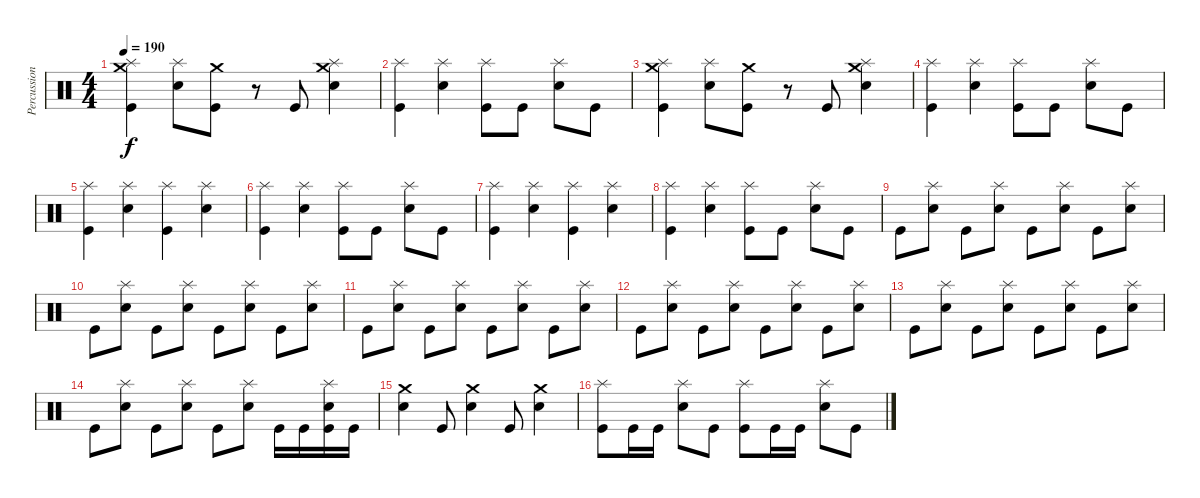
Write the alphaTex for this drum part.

\track ("Percussion" "Percussion") {instrument percussion}
\staff {score}
\articulation defaults
\ts (4 4)
\tempo 190
\clef neutral
\ks c
("Crash medium (hit)" "Splash (hit)" "Kick (hit)").4{dy f} ("Splash (hit)" "Electric Snare (hit)").8 ("Crash medium (hit)" "Kick (hit)").8 r.8 "Kick (hit)".8 ("Crash medium (hit)" "Splash (hit)" "Electric Snare (hit)").4 |
("Splash (hit)" "Kick (hit)").4 ("Splash (hit)" "Electric Snare (hit)").4 ("Splash (hit)" "Kick (hit)").8 "Kick (hit)".8 ("Splash (hit)" "Electric Snare (hit)").8 "Kick (hit)".8 |
("Crash medium (hit)" "Splash (hit)" "Kick (hit)").4 ("Splash (hit)" "Electric Snare (hit)").8 ("Crash medium (hit)" "Kick (hit)").8 r.8 "Kick (hit)".8 ("Crash medium (hit)" "Splash (hit)" "Electric Snare (hit)").4 |
("Splash (hit)" "Kick (hit)").4 ("Splash (hit)" "Electric Snare (hit)").4 ("Splash (hit)" "Kick (hit)").8 "Kick (hit)".8 ("Splash (hit)" "Electric Snare (hit)").8 "Kick (hit)".8 |
("Splash (hit)" "Kick (hit)").4 ("Splash (hit)" "Electric Snare (hit)").4 ("Splash (hit)" "Kick (hit)").4 ("Splash (hit)" "Electric Snare (hit)").4 |
("Splash (hit)" "Kick (hit)").4 ("Splash (hit)" "Electric Snare (hit)").4 ("Splash (hit)" "Kick (hit)").8 "Kick (hit)".8 ("Splash (hit)" "Electric Snare (hit)").8 "Kick (hit)".8 |
("Splash (hit)" "Kick (hit)").4 ("Splash (hit)" "Electric Snare (hit)").4 ("Splash (hit)" "Kick (hit)").4 ("Splash (hit)" "Electric Snare (hit)").4 |
("Splash (hit)" "Kick (hit)").4 ("Splash (hit)" "Electric Snare (hit)").4 ("Splash (hit)" "Kick (hit)").8 "Kick (hit)".8 ("Splash (hit)" "Electric Snare (hit)").8 "Kick (hit)".8 |
"Kick (hit)".8 ("Splash (hit)" "Electric Snare (hit)").8 "Kick (hit)".8 ("Splash (hit)" "Electric Snare (hit)").8 "Kick (hit)".8 ("Splash (hit)" "Electric Snare (hit)").8 "Kick (hit)".8 ("Splash (hit)" "Electric Snare (hit)").8 |
"Kick (hit)".8 ("Splash (hit)" "Electric Snare (hit)").8 "Kick (hit)".8 ("Splash (hit)" "Electric Snare (hit)").8 "Kick (hit)".8 ("Splash (hit)" "Electric Snare (hit)").8 "Kick (hit)".8 ("Splash (hit)" "Electric Snare (hit)").8 |
"Kick (hit)".8 ("Splash (hit)" "Electric Snare (hit)").8 "Kick (hit)".8 ("Splash (hit)" "Electric Snare (hit)").8 "Kick (hit)".8 ("Splash (hit)" "Electric Snare (hit)").8 "Kick (hit)".8 ("Splash (hit)" "Electric Snare (hit)").8 |
"Kick (hit)".8 ("Splash (hit)" "Electric Snare (hit)").8 "Kick (hit)".8 ("Splash (hit)" "Electric Snare (hit)").8 "Kick (hit)".8 ("Splash (hit)" "Electric Snare (hit)").8 "Kick (hit)".8 ("Splash (hit)" "Electric Snare (hit)").8 |
"Kick (hit)".8 ("Splash (hit)" "Electric Snare (hit)").8 "Kick (hit)".8 ("Splash (hit)" "Electric Snare (hit)").8 "Kick (hit)".8 ("Splash (hit)" "Electric Snare (hit)").8 "Kick (hit)".8 ("Splash (hit)" "Electric Snare (hit)").8 |
"Kick (hit)".8 ("Splash (hit)" "Electric Snare (hit)").8 "Kick (hit)".8 ("Splash (hit)" "Electric Snare (hit)").8 "Kick (hit)".8 ("Splash (hit)" "Electric Snare (hit)").8 "Kick (hit)".16 "Kick (hit)".16 ("Splash (hit)" "Electric Snare (hit)" "Kick (hit)").16 "Kick (hit)".16 |
("Crash medium (hit)" "Electric Snare (hit)").4 "Kick (hit)".8 ("Crash medium (hit)" "Electric Snare (hit)").4 "Kick (hit)".8 ("Crash medium (hit)" "Electric Snare (hit)").4 |
("Splash (hit)" "Kick (hit)").8 "Kick (hit)".16 "Kick (hit)".16 ("Splash (hit)" "Electric Snare (hit)").8 "Kick (hit)".8 ("Splash (hit)" "Kick (hit)").8 "Kick (hit)".16 "Kick (hit)".16 ("Splash (hit)" "Electric Snare (hit)").8 "Kick (hit)".8
